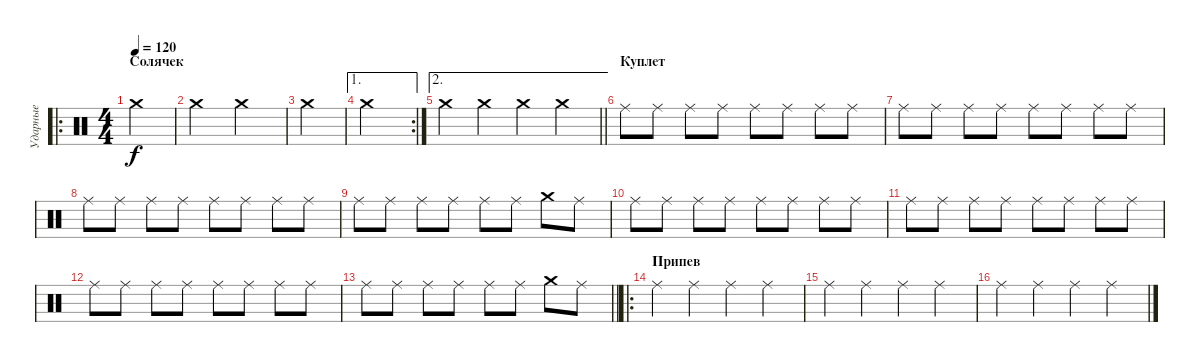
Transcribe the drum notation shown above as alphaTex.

\track ("Ударные" "Ударные") {instrument percussion}
\staff {score}
\articulation defaults
\ro
\ts (4 4)
\section ("" "Солячек")
\tempo 120
\clef neutral
\ks c "Crash medium (hit)".4{dy f}
|
"Crash medium (hit)".2 "Crash medium (hit)".2 |
"Crash medium (hit)".4 |
\ae 1
\rc 2 "Crash medium (hit)".2
|
\ae 2
\barLineRight lightlight "Crash medium (hit)".4 "Crash medium (hit)".4 "Crash medium (hit)".4 "Crash medium (hit)".4
|
\section ("" "Куплет")
"Ride (middle)".8 "Ride (middle)".8 "Ride (middle)".8 "Ride (middle)".8 "Ride (middle)".8 "Ride (middle)".8 "Ride (middle)".8 "Ride (middle)".8 |
"Ride (middle)".8 "Ride (middle)".8 "Ride (middle)".8 "Ride (middle)".8 "Ride (middle)".8 "Ride (middle)".8 "Ride (middle)".8 "Ride (middle)".8 |
"Ride (middle)".8 "Ride (middle)".8 "Ride (middle)".8 "Ride (middle)".8 "Ride (middle)".8 "Ride (middle)".8 "Ride (middle)".8 "Ride (middle)".8 |
"Ride (middle)".8 "Ride (middle)".8 "Ride (middle)".8 "Ride (middle)".8 "Ride (middle)".8 "Ride (middle)".8 "Crash medium (hit)".8 "Ride (middle)".8 |
"Ride (middle)".8 "Ride (middle)".8 "Ride (middle)".8 "Ride (middle)".8 "Ride (middle)".8 "Ride (middle)".8 "Ride (middle)".8 "Ride (middle)".8 |
"Ride (middle)".8 "Ride (middle)".8 "Ride (middle)".8 "Ride (middle)".8 "Ride (middle)".8 "Ride (middle)".8 "Ride (middle)".8 "Ride (middle)".8 |
"Ride (middle)".8 "Ride (middle)".8 "Ride (middle)".8 "Ride (middle)".8 "Ride (middle)".8 "Ride (middle)".8 "Ride (middle)".8 "Ride (middle)".8 |
\barLineRight lightlight "Ride (middle)".8 "Ride (middle)".8 "Ride (middle)".8 "Ride (middle)".8 "Ride (middle)".8 "Ride (middle)".8 "Crash medium (hit)".8 "Ride (middle)".8
|
\ro
\section ("" "Припев")
"Ride (middle)".4 "Ride (middle)".4 "Ride (middle)".4 "Ride (middle)".4 |
"Ride (middle)".4 "Ride (middle)".4 "Ride (middle)".4 "Ride (middle)".4 |
"Ride (middle)".4 "Ride (middle)".4 "Ride (middle)".4 "Ride (middle)".4
